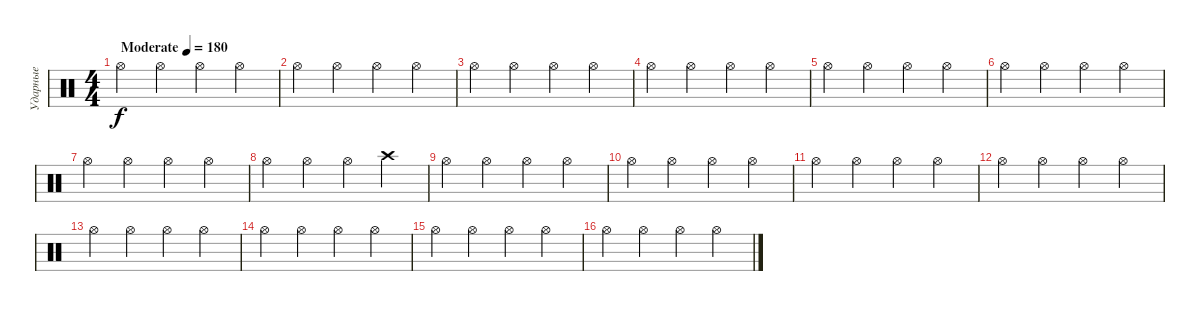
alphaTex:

\track ("Ударные" "Ударные") {instrument percussion}
\staff {score}
\articulation defaults
\ts (4 4)
\tempo (180 "Moderate")
\clef neutral
\ks c "Hi-Hat (open)".4{dy f} "Hi-Hat (open)".4 "Hi-Hat (open)".4 "Hi-Hat (open)".4
|
"Hi-Hat (open)".4 "Hi-Hat (open)".4 "Hi-Hat (open)".4 "Hi-Hat (open)".4 |
"Hi-Hat (open)".4 "Hi-Hat (open)".4 "Hi-Hat (open)".4 "Hi-Hat (open)".4 |
"Hi-Hat (open)".4 "Hi-Hat (open)".4 "Hi-Hat (open)".4 "Hi-Hat (open)".4 |
"Hi-Hat (open)".4 "Hi-Hat (open)".4 "Hi-Hat (open)".4 "Hi-Hat (open)".4 |
"Hi-Hat (open)".4 "Hi-Hat (open)".4 "Hi-Hat (open)".4 "Hi-Hat (open)".4 |
"Hi-Hat (open)".4 "Hi-Hat (open)".4 "Hi-Hat (open)".4 "Hi-Hat (open)".4 |
"Hi-Hat (open)".4 "Hi-Hat (open)".4 "Hi-Hat (open)".4 "Crash high (hit)".4 |
"Hi-Hat (open)".4 "Hi-Hat (open)".4 "Hi-Hat (open)".4 "Hi-Hat (open)".4 |
"Hi-Hat (open)".4 "Hi-Hat (open)".4 "Hi-Hat (open)".4 "Hi-Hat (open)".4 |
"Hi-Hat (open)".4 "Hi-Hat (open)".4 "Hi-Hat (open)".4 "Hi-Hat (open)".4 |
"Hi-Hat (open)".4 "Hi-Hat (open)".4 "Hi-Hat (open)".4 "Hi-Hat (open)".4 |
"Hi-Hat (open)".4 "Hi-Hat (open)".4 "Hi-Hat (open)".4 "Hi-Hat (open)".4 |
"Hi-Hat (open)".4 "Hi-Hat (open)".4 "Hi-Hat (open)".4 "Hi-Hat (open)".4 |
"Hi-Hat (open)".4 "Hi-Hat (open)".4 "Hi-Hat (open)".4 "Hi-Hat (open)".4 |
"Hi-Hat (open)".4 "Hi-Hat (open)".4 "Hi-Hat (open)".4 "Hi-Hat (open)".4
